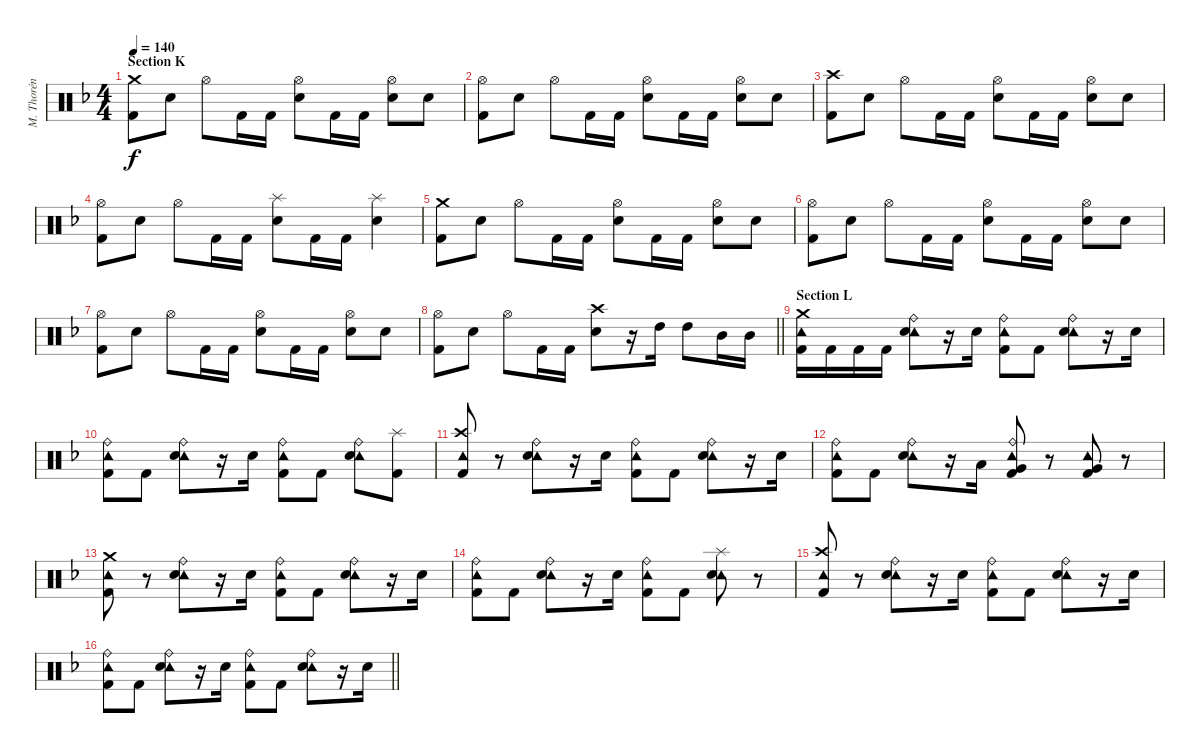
\track ("M. Thorén (Drums)" "M. Thorén ") {instrument percussion}
\staff {score}
\articulation defaults
\ts (4 4)
\section ("" "Section K")
\tempo 140
\clef neutral
\ks dminor
("Crash medium (hit)" "Kick (hit) 2").8{dy f} "Electric Snare (hit)".8 "Hi-Hat (open)".8 "Kick (hit) 2".16 "Kick (hit) 2".16 ("Hi-Hat (open)" "Electric Snare (hit)").8 "Kick (hit) 2".16 "Kick (hit) 2".16 ("Hi-Hat (open)" "Electric Snare (hit)").8 "Electric Snare (hit)".8 |
("Hi-Hat (open)" "Kick (hit) 2").8 "Electric Snare (hit)".8 "Hi-Hat (open)".8 "Kick (hit) 2".16 "Kick (hit) 2".16 ("Hi-Hat (open)" "Electric Snare (hit)").8 "Kick (hit) 2".16 "Kick (hit) 2".16 ("Hi-Hat (open)" "Electric Snare (hit)").8 "Electric Snare (hit)".8 |
("Crash high (hit)" "Kick (hit) 2").8 "Electric Snare (hit)".8 "Hi-Hat (open)".8 "Kick (hit) 2".16 "Kick (hit) 2".16 ("Hi-Hat (open)" "Electric Snare (hit)").8 "Kick (hit) 2".16 "Kick (hit) 2".16 ("Hi-Hat (open)" "Electric Snare (hit)").8 "Electric Snare (hit)".8 |
("Hi-Hat (open)" "Kick (hit) 2").8 "Electric Snare (hit)".8 "Hi-Hat (open)".8 "Kick (hit) 2".16 "Kick (hit) 2".16 ("Splash (hit)" "Electric Snare (hit)").8 "Kick (hit) 2".16 "Kick (hit) 2".16 ("Splash (hit)" "Electric Snare (hit)").4 |
("Crash medium (hit)" "Kick (hit) 2").8 "Electric Snare (hit)".8 "Hi-Hat (open)".8 "Kick (hit) 2".16 "Kick (hit) 2".16 ("Hi-Hat (open)" "Electric Snare (hit)").8 "Kick (hit) 2".16 "Kick (hit) 2".16 ("Hi-Hat (open)" "Electric Snare (hit)").8 "Electric Snare (hit)".8 |
("Hi-Hat (open)" "Kick (hit) 2").8 "Electric Snare (hit)".8 "Hi-Hat (open)".8 "Kick (hit) 2".16 "Kick (hit) 2".16 ("Hi-Hat (open)" "Electric Snare (hit)").8 "Kick (hit) 2".16 "Kick (hit) 2".16 ("Hi-Hat (open)" "Electric Snare (hit)").8 "Electric Snare (hit)".8 |
("Hi-Hat (open)" "Kick (hit) 2").8 "Electric Snare (hit)".8 "Hi-Hat (open)".8 "Kick (hit) 2".16 "Kick (hit) 2".16 ("Hi-Hat (open)" "Electric Snare (hit)").8 "Kick (hit) 2".16 "Kick (hit) 2".16 ("Hi-Hat (open)" "Electric Snare (hit)").8 "Electric Snare (hit)".8 |
\barLineRight lightlight
("Hi-Hat (open)" "Kick (hit) 2").8 "Electric Snare (hit)".8 "Hi-Hat (open)".8 "Kick (hit) 2".16 "Kick (hit) 2".16 ("Crash high (hit)" "Electric Snare (hit)").8 r.16 "High Tom (hit)".16 "High Tom (hit)".8 "Mid Tom (hit)".16 "Mid Tom (hit)".16 |
\section ("" "Section L")
("Tambourine (hit)" "Crash medium (hit)" "Kick (hit) 2").16 "Kick (hit) 2".16 "Kick (hit) 2".16 "Kick (hit) 2".16 ("Tambourine (hit)" "Ride (bell)" "Electric Snare (hit)").8 r.16 "Electric Snare (hit)".16 ("Tambourine (hit)" "Ride (bell)" "Kick (hit) 2").8 "Kick (hit) 2".8 ("Tambourine (hit)" "Ride (bell)" "Electric Snare (hit)").8 r.16 "Electric Snare (hit)".16 |
("Tambourine (hit)" "Ride (bell)" "Kick (hit) 2").8 "Kick (hit) 2".8 ("Tambourine (hit)" "Ride (bell)" "Electric Snare (hit)").8 r.16 "Electric Snare (hit)".16 ("Tambourine (hit)" "Ride (bell)" "Kick (hit) 2").8 "Kick (hit) 2".8 ("Tambourine (hit)" "Ride (bell)" "Electric Snare (hit)").8 ("Splash (hit)" "Kick (hit) 2").8 |
("Tambourine (hit)" "Crash high (hit)" "Kick (hit) 2").8 r.8 ("Tambourine (hit)" "Ride (bell)" "Electric Snare (hit)").8 r.16 "Electric Snare (hit)".16 ("Tambourine (hit)" "Ride (bell)" "Kick (hit) 2").8 "Kick (hit) 2".8 ("Tambourine (hit)" "Ride (bell)" "Electric Snare (hit)").8 r.16 "Electric Snare (hit)".16 |
("Tambourine (hit)" "Ride (bell)" "Kick (hit) 2").8 "Kick (hit) 2".8 ("Tambourine (hit)" "Ride (bell)" "Electric Snare (hit)").8 r.16 "Low Tom (hit)".16 ("Tambourine (hit)" "Ride (bell)" "Very Low Tom (hit)" "Kick (hit) 2").8 r.8 ("Tambourine (hit)" "Very Low Tom (hit)" "Kick (hit) 2").8 r.8 |
("Tambourine (hit)" "Crash medium (hit)" "Kick (hit) 2").8 r.8 ("Tambourine (hit)" "Ride (bell)" "Electric Snare (hit)").8 r.16 "Electric Snare (hit)".16 ("Tambourine (hit)" "Ride (bell)" "Kick (hit) 2").8 "Kick (hit) 2".8 ("Tambourine (hit)" "Ride (bell)" "Electric Snare (hit)").8 r.16 "Electric Snare (hit)".16 |
("Tambourine (hit)" "Ride (bell)" "Kick (hit) 2").8 "Kick (hit) 2".8 ("Tambourine (hit)" "Ride (bell)" "Electric Snare (hit)").8 r.16 "Electric Snare (hit)".16 ("Tambourine (hit)" "Ride (bell)" "Kick (hit) 2").8 "Kick (hit) 2".8 ("Tambourine (hit)" "Splash (hit)" "Electric Snare (hit)").8 r.8 |
("Tambourine (hit)" "Crash high (hit)" "Kick (hit) 2").8 r.8 ("Tambourine (hit)" "Ride (bell)" "Electric Snare (hit)").8 r.16 "Electric Snare (hit)".16 ("Tambourine (hit)" "Ride (bell)" "Kick (hit) 2").8 "Kick (hit) 2".8 ("Tambourine (hit)" "Ride (bell)" "Electric Snare (hit)").8 r.16 "Electric Snare (hit)".16 |
\barLineRight lightlight
("Tambourine (hit)" "Ride (bell)" "Kick (hit) 2").8 "Kick (hit) 2".8 ("Tambourine (hit)" "Ride (bell)" "Electric Snare (hit)").8 r.16 "Electric Snare (hit)".16 ("Tambourine (hit)" "Ride (bell)" "Kick (hit) 2").8 "Kick (hit) 2".8 ("Tambourine (hit)" "Ride (bell)" "Electric Snare (hit)").8 r.16 "Electric Snare (hit)".16
